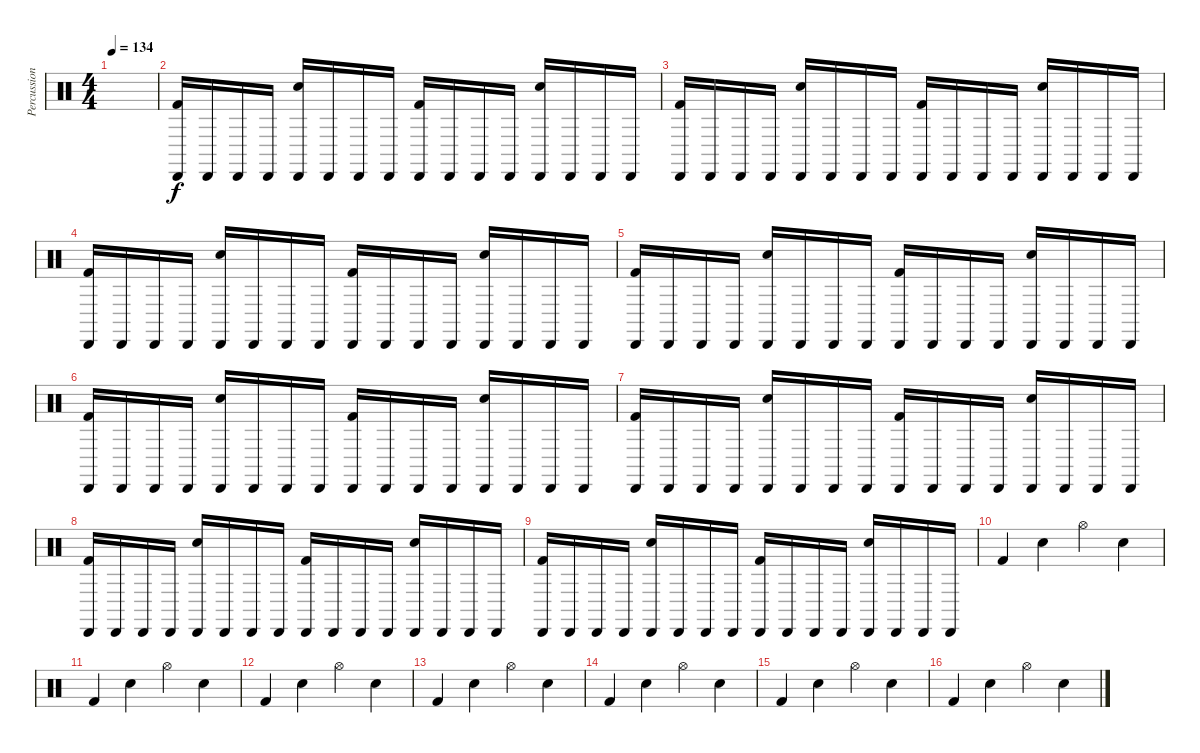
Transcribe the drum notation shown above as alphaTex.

\track ("Percussion" "Percussion") {instrument percussion}
\staff {score}
\articulation defaults
\ts (4 4)
\tempo 134
\clef neutral
\ks c
|
("Cabasa (hit)" "Kick (hit) 2").16 "Cabasa (hit)".16 "Cabasa (hit)".16 "Cabasa (hit)".16 ("Cabasa (hit)" "Snare (hit) 2").16 "Cabasa (hit)".16 "Cabasa (hit)".16 "Cabasa (hit)".16 ("Cabasa (hit)" "Kick (hit) 2").16 "Cabasa (hit)".16 "Cabasa (hit)".16 "Cabasa (hit)".16 ("Cabasa (hit)" "Snare (hit) 2").16 "Cabasa (hit)".16 "Cabasa (hit)".16 "Cabasa (hit)".16 |
("Cabasa (hit)" "Kick (hit) 2").16 "Cabasa (hit)".16 "Cabasa (hit)".16 "Cabasa (hit)".16 ("Cabasa (hit)" "Snare (hit) 2").16 "Cabasa (hit)".16 "Cabasa (hit)".16 "Cabasa (hit)".16 ("Cabasa (hit)" "Kick (hit) 2").16 "Cabasa (hit)".16 "Cabasa (hit)".16 "Cabasa (hit)".16 ("Cabasa (hit)" "Snare (hit) 2").16 "Cabasa (hit)".16 "Cabasa (hit)".16 "Cabasa (hit)".16 |
("Cabasa (hit)" "Kick (hit) 2").16 "Cabasa (hit)".16 "Cabasa (hit)".16 "Cabasa (hit)".16 ("Cabasa (hit)" "Snare (hit) 2").16 "Cabasa (hit)".16 "Cabasa (hit)".16 "Cabasa (hit)".16 ("Cabasa (hit)" "Kick (hit) 2").16 "Cabasa (hit)".16 "Cabasa (hit)".16 "Cabasa (hit)".16 ("Cabasa (hit)" "Snare (hit) 2").16 "Cabasa (hit)".16 "Cabasa (hit)".16 "Cabasa (hit)".16 |
("Cabasa (hit)" "Kick (hit) 2").16 "Cabasa (hit)".16 "Cabasa (hit)".16 "Cabasa (hit)".16 ("Cabasa (hit)" "Snare (hit) 2").16 "Cabasa (hit)".16 "Cabasa (hit)".16 "Cabasa (hit)".16 ("Cabasa (hit)" "Kick (hit) 2").16 "Cabasa (hit)".16 "Cabasa (hit)".16 "Cabasa (hit)".16 ("Cabasa (hit)" "Snare (hit) 2").16 "Cabasa (hit)".16 "Cabasa (hit)".16 "Cabasa (hit)".16 |
("Cabasa (hit)" "Kick (hit) 2").16 "Cabasa (hit)".16 "Cabasa (hit)".16 "Cabasa (hit)".16 ("Cabasa (hit)" "Snare (hit) 2").16 "Cabasa (hit)".16 "Cabasa (hit)".16 "Cabasa (hit)".16 ("Cabasa (hit)" "Kick (hit) 2").16 "Cabasa (hit)".16 "Cabasa (hit)".16 "Cabasa (hit)".16 ("Cabasa (hit)" "Snare (hit) 2").16 "Cabasa (hit)".16 "Cabasa (hit)".16 "Cabasa (hit)".16 |
("Cabasa (hit)" "Kick (hit) 2").16 "Cabasa (hit)".16 "Cabasa (hit)".16 "Cabasa (hit)".16 ("Cabasa (hit)" "Snare (hit) 2").16 "Cabasa (hit)".16 "Cabasa (hit)".16 "Cabasa (hit)".16 ("Cabasa (hit)" "Kick (hit) 2").16 "Cabasa (hit)".16 "Cabasa (hit)".16 "Cabasa (hit)".16 ("Cabasa (hit)" "Snare (hit) 2").16 "Cabasa (hit)".16 "Cabasa (hit)".16 "Cabasa (hit)".16 |
("Cabasa (hit)" "Kick (hit) 2").16 "Cabasa (hit)".16 "Cabasa (hit)".16 "Cabasa (hit)".16 ("Cabasa (hit)" "Snare (hit) 2").16 "Cabasa (hit)".16 "Cabasa (hit)".16 "Cabasa (hit)".16 ("Cabasa (hit)" "Kick (hit) 2").16 "Cabasa (hit)".16 "Cabasa (hit)".16 "Cabasa (hit)".16 ("Cabasa (hit)" "Snare (hit) 2").16 "Cabasa (hit)".16 "Cabasa (hit)".16 "Cabasa (hit)".16 |
("Cabasa (hit)" "Kick (hit) 2").16 "Cabasa (hit)".16 "Cabasa (hit)".16 "Cabasa (hit)".16 ("Cabasa (hit)" "Snare (hit) 2").16 "Cabasa (hit)".16 "Cabasa (hit)".16 "Cabasa (hit)".16 ("Cabasa (hit)" "Kick (hit) 2").16 "Cabasa (hit)".16 "Cabasa (hit)".16 "Cabasa (hit)".16 ("Cabasa (hit)" "Snare (hit) 2").16 "Cabasa (hit)".16 "Cabasa (hit)".16 "Cabasa (hit)".16 |
"Kick (hit) 2".4 "Snare (hit) 2".4 "Hi-Hat (open)".4 "Snare (hit) 2".4 |
"Kick (hit) 2".4 "Snare (hit) 2".4 "Hi-Hat (open)".4 "Snare (hit) 2".4 |
"Kick (hit) 2".4 "Snare (hit) 2".4 "Hi-Hat (open)".4 "Snare (hit) 2".4 |
"Kick (hit) 2".4 "Snare (hit) 2".4 "Hi-Hat (open)".4 "Snare (hit) 2".4 |
"Kick (hit) 2".4 "Snare (hit) 2".4 "Hi-Hat (open)".4 "Snare (hit) 2".4 |
"Kick (hit) 2".4 "Snare (hit) 2".4 "Hi-Hat (open)".4 "Snare (hit) 2".4 |
"Kick (hit) 2".4 "Snare (hit) 2".4 "Hi-Hat (open)".4 "Snare (hit) 2".4
